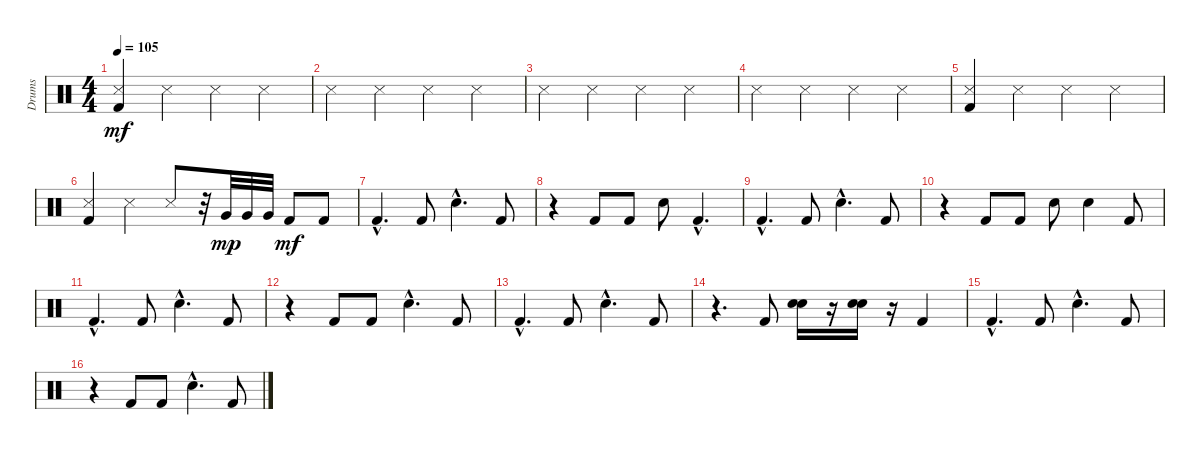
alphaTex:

\track ("Drums" "Drums") {instrument percussion}
\staff {score}
\articulation defaults
\ts (4 4)
\tempo 105
\clef neutral
\ks c
("Kick (hit) 2" "Snare (side stick) 3").4{dy mf} "Snare (side stick) 3".4 "Snare (side stick) 3".4 "Snare (side stick) 3".4 |
"Snare (side stick) 3".4 "Snare (side stick) 3".4 "Snare (side stick) 3".4 "Snare (side stick) 3".4 |
"Snare (side stick) 3".4 "Snare (side stick) 3".4 "Snare (side stick) 3".4 "Snare (side stick) 3".4 |
"Snare (side stick) 3".4 "Snare (side stick) 3".4 "Snare (side stick) 3".4 "Snare (side stick) 3".4 |
("Kick (hit) 2" "Snare (side stick) 3").4 "Snare (side stick) 3".4 "Snare (side stick) 3".4 "Snare (side stick) 3".4 |
("Kick (hit) 2" "Snare (side stick) 3").4 "Snare (side stick) 3".4 "Snare (side stick) 3".8 r.32 "Very Low Tom (hit)".32{dy mp} "Very Low Tom (hit)".32 "Very Low Tom (hit)".32 "Kick (hit) 2".8{dy mf} "Kick (hit) 2".8 |
"Kick (hit) 2"{hac}.4{d} "Kick (hit) 2".8 "Snare (hit) 2"{hac}.4{d} "Kick (hit) 2".8 |
r.4 "Kick (hit) 2".8 "Kick (hit) 2".8 "Snare (hit) 2".8 "Kick (hit) 2"{hac}.4{d} |
"Kick (hit) 2"{hac}.4{d} "Kick (hit) 2".8 "Snare (hit) 2"{hac}.4{d} "Kick (hit) 2".8 |
r.4 "Kick (hit) 2".8 "Kick (hit) 2".8 "Snare (hit) 2".8 "Snare (hit) 2".4 "Kick (hit) 2".8 |
"Kick (hit) 2"{hac}.4{d} "Kick (hit) 2".8 "Snare (hit) 2"{hac}.4{d} "Kick (hit) 2".8 |
r.4 "Kick (hit) 2".8 "Kick (hit) 2".8 "Snare (hit) 2"{hac}.4{d} "Kick (hit) 2".8 |
"Kick (hit) 2"{hac}.4{d} "Kick (hit) 2".8 "Snare (hit) 2"{hac}.4{d} "Kick (hit) 2".8 |
r.4{d} "Kick (hit) 2".8 ("Snare (hit) 2" "Snare (hit) 2").16 r.16 ("Snare (hit) 2" "Snare (hit) 2").16 r.16 "Kick (hit) 2".4 |
"Kick (hit) 2"{hac}.4{d} "Kick (hit) 2".8 "Snare (hit) 2"{hac}.4{d} "Kick (hit) 2".8 |
r.4 "Kick (hit) 2".8 "Kick (hit) 2".8 "Snare (hit) 2"{hac}.4{d} "Kick (hit) 2".8
